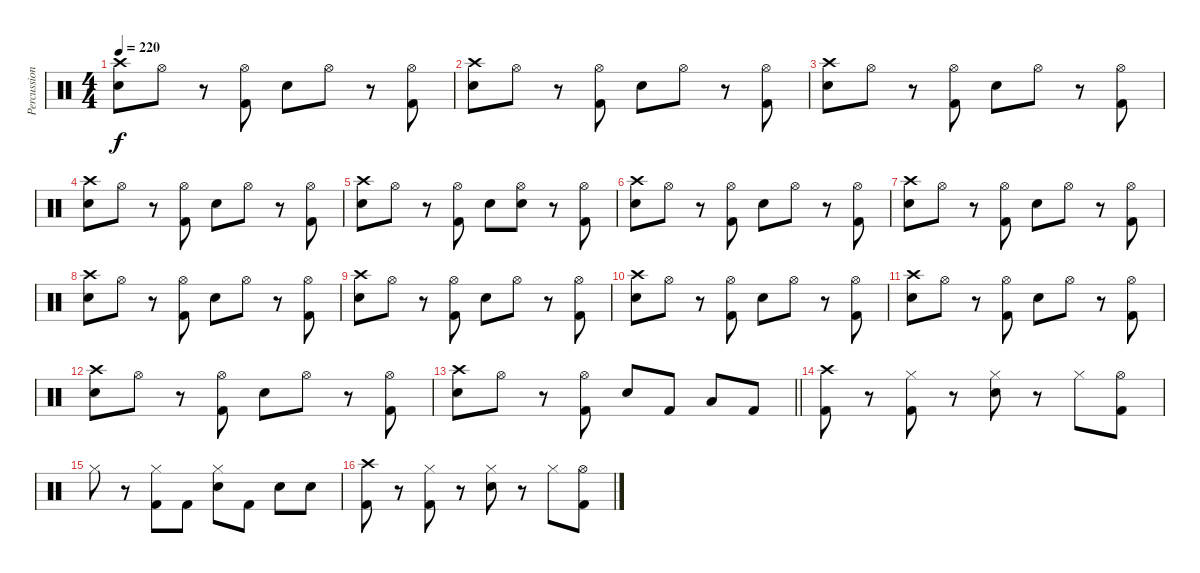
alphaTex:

\track ("Percussion" "Percussion") {instrument percussion}
\staff {score}
\articulation defaults
\ts (4 4)
\tempo 220
\clef neutral
\ks c
("Crash high (hit)" "Electric Snare (hit)").8{dy f} "Hi-Hat (open)".8 r.8 ("Hi-Hat (open)" "Kick (hit) 2").8 "Electric Snare (hit)".8 "Hi-Hat (open)".8 r.8 ("Hi-Hat (open)" "Kick (hit) 2").8 |
("Crash high (hit)" "Electric Snare (hit)").8 "Hi-Hat (open)".8 r.8 ("Hi-Hat (open)" "Kick (hit) 2").8 "Electric Snare (hit)".8 "Hi-Hat (open)".8 r.8 ("Hi-Hat (open)" "Kick (hit) 2").8 |
("Crash high (hit)" "Electric Snare (hit)").8 "Hi-Hat (open)".8 r.8 ("Hi-Hat (open)" "Kick (hit) 2").8 "Electric Snare (hit)".8 "Hi-Hat (open)".8 r.8 ("Hi-Hat (open)" "Kick (hit) 2").8 |
("Crash high (hit)" "Electric Snare (hit)").8 "Hi-Hat (open)".8 r.8 ("Hi-Hat (open)" "Kick (hit) 2").8 "Electric Snare (hit)".8 "Hi-Hat (open)".8 r.8 ("Hi-Hat (open)" "Kick (hit) 2").8 |
("Crash high (hit)" "Electric Snare (hit)").8 "Hi-Hat (open)".8 r.8 ("Hi-Hat (open)" "Kick (hit) 2").8 "Electric Snare (hit)".8 ("Hi-Hat (open)" "Electric Snare (hit)").8 r.8 ("Hi-Hat (open)" "Kick (hit) 2").8 |
("Crash high (hit)" "Electric Snare (hit)").8 "Hi-Hat (open)".8 r.8 ("Hi-Hat (open)" "Kick (hit) 2").8 "Electric Snare (hit)".8 "Hi-Hat (open)".8 r.8 ("Hi-Hat (open)" "Kick (hit) 2").8 |
("Crash high (hit)" "Electric Snare (hit)").8 "Hi-Hat (open)".8 r.8 ("Hi-Hat (open)" "Kick (hit) 2").8 "Electric Snare (hit)".8 "Hi-Hat (open)".8 r.8 ("Hi-Hat (open)" "Kick (hit) 2").8 |
("Crash high (hit)" "Electric Snare (hit)").8 "Hi-Hat (open)".8 r.8 ("Hi-Hat (open)" "Kick (hit) 2").8 "Electric Snare (hit)".8 "Hi-Hat (open)".8 r.8 ("Hi-Hat (open)" "Kick (hit) 2").8 |
("Crash high (hit)" "Electric Snare (hit)").8 "Hi-Hat (open)".8 r.8 ("Hi-Hat (open)" "Kick (hit) 2").8 "Electric Snare (hit)".8 "Hi-Hat (open)".8 r.8 ("Hi-Hat (open)" "Kick (hit) 2").8 |
("Crash high (hit)" "Electric Snare (hit)").8 "Hi-Hat (open)".8 r.8 ("Hi-Hat (open)" "Kick (hit) 2").8 "Electric Snare (hit)".8 "Hi-Hat (open)".8 r.8 ("Hi-Hat (open)" "Kick (hit) 2").8 |
("Crash high (hit)" "Electric Snare (hit)").8 "Hi-Hat (open)".8 r.8 ("Hi-Hat (open)" "Kick (hit) 2").8 "Electric Snare (hit)".8 "Hi-Hat (open)".8 r.8 ("Hi-Hat (open)" "Kick (hit) 2").8 |
("Crash high (hit)" "Electric Snare (hit)").8 "Hi-Hat (open)".8 r.8 ("Hi-Hat (open)" "Kick (hit) 2").8 "Electric Snare (hit)".8 "Hi-Hat (open)".8 r.8 ("Hi-Hat (open)" "Kick (hit) 2").8 |
\barLineRight lightlight
("Crash high (hit)" "Electric Snare (hit)").8 "Hi-Hat (open)".8 r.8 ("Hi-Hat (open)" "Kick (hit) 2").8 "Electric Snare (hit)".8 "Kick (hit) 2".8 "Low Tom (hit)".8 "Kick (hit) 2".8 |
("Crash high (hit)" "Kick (hit) 2").8 r.8 ("Hi-Hat (closed)" "Kick (hit) 2").8 r.8 ("Hi-Hat (closed)" "Electric Snare (hit)").8 r.8 "Hi-Hat (closed)".8 ("Hi-Hat (open)" "Kick (hit) 2").8 |
"Hi-Hat (closed)".8 r.8 ("Hi-Hat (closed)" "Kick (hit) 2").8 "Kick (hit) 2".8 ("Hi-Hat (closed)" "Electric Snare (hit)").8 "Kick (hit) 2".8 "Electric Snare (hit)".8 "Electric Snare (hit)".8 |
("Crash high (hit)" "Kick (hit) 2").8 r.8 ("Hi-Hat (closed)" "Kick (hit) 2").8 r.8 ("Hi-Hat (closed)" "Electric Snare (hit)").8 r.8 "Hi-Hat (closed)".8 ("Hi-Hat (open)" "Kick (hit) 2").8
